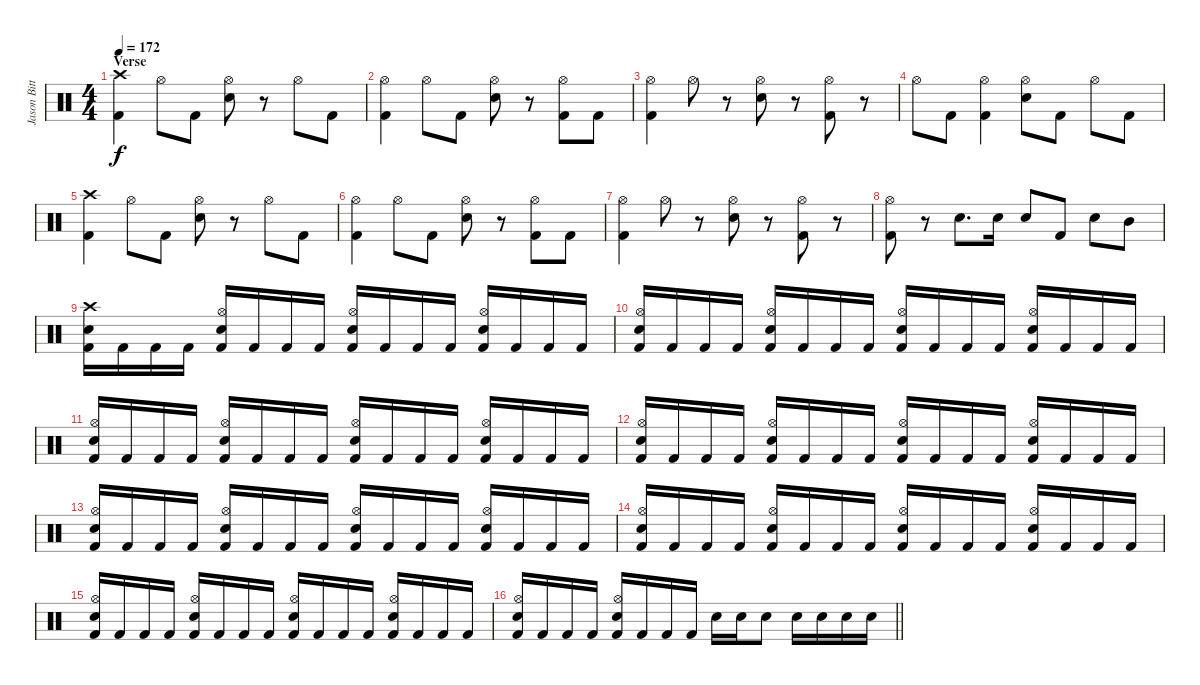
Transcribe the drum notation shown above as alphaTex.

\track ("Jason Bittner" "Jason Bitt") {instrument percussion}
\staff {score}
\articulation defaults
\ts (4 4)
\section ("" "Verse")
\tempo 172
\clef neutral
\ks c
("Crash high (hit)" "Kick (hit) 2").4{dy f} "Hi-Hat (open)".8 "Kick (hit) 2".8 ("Hi-Hat (open)" "Electric Snare (hit)").8 r.8 "Hi-Hat (open)".8 "Kick (hit) 2".8 |
("Hi-Hat (open)" "Kick (hit) 2").4 "Hi-Hat (open)".8 "Kick (hit) 2".8 ("Hi-Hat (open)" "Electric Snare (hit)").8 r.8 ("Hi-Hat (open)" "Kick (hit) 2").8 "Kick (hit) 2".8 |
("Hi-Hat (open)" "Kick (hit) 2").4 "Hi-Hat (open)".8 r.8 ("Hi-Hat (open)" "Electric Snare (hit)").8 r.8 ("Hi-Hat (open)" "Kick (hit) 2").8 r.8 |
"Hi-Hat (open)".8 "Kick (hit) 2".8 ("Hi-Hat (open)" "Kick (hit) 2").4 ("Hi-Hat (open)" "Electric Snare (hit)").8 "Kick (hit) 2".8 "Hi-Hat (open)".8 "Kick (hit) 2".8 |
("Crash high (hit)" "Kick (hit) 2").4 "Hi-Hat (open)".8 "Kick (hit) 2".8 ("Hi-Hat (open)" "Electric Snare (hit)").8 r.8 "Hi-Hat (open)".8 "Kick (hit) 2".8 |
("Hi-Hat (open)" "Kick (hit) 2").4 "Hi-Hat (open)".8 "Kick (hit) 2".8 ("Hi-Hat (open)" "Electric Snare (hit)").8 r.8 ("Hi-Hat (open)" "Kick (hit) 2").8 "Kick (hit) 2".8 |
("Hi-Hat (open)" "Kick (hit) 2").4 "Hi-Hat (open)".8 r.8 ("Hi-Hat (open)" "Electric Snare (hit)").8 r.8 ("Hi-Hat (open)" "Kick (hit) 2").8 r.8 |
("Hi-Hat (open)" "Kick (hit) 2").8 r.8 "Electric Snare (hit)".8{d} "Electric Snare (hit)".16 "Electric Snare (hit)".8 "Kick (hit) 2".8 "Electric Snare (hit)".8 "Mid Tom (hit)".8 |
("Crash high (hit)" "Electric Snare (hit)" "Kick (hit) 2").16 "Kick (hit) 2".16 "Kick (hit) 2".16 "Kick (hit) 2".16 ("Hi-Hat (open)" "Electric Snare (hit)" "Kick (hit) 2").16 "Kick (hit) 2".16 "Kick (hit) 2".16 "Kick (hit) 2".16 ("Hi-Hat (open)" "Electric Snare (hit)" "Kick (hit) 2").16 "Kick (hit) 2".16 "Kick (hit) 2".16 "Kick (hit) 2".16 ("Hi-Hat (open)" "Electric Snare (hit)" "Kick (hit) 2").16 "Kick (hit) 2".16 "Kick (hit) 2".16 "Kick (hit) 2".16 |
("Hi-Hat (open)" "Electric Snare (hit)" "Kick (hit) 2").16 "Kick (hit) 2".16 "Kick (hit) 2".16 "Kick (hit) 2".16 ("Hi-Hat (open)" "Electric Snare (hit)" "Kick (hit) 2").16 "Kick (hit) 2".16 "Kick (hit) 2".16 "Kick (hit) 2".16 ("Hi-Hat (open)" "Electric Snare (hit)" "Kick (hit) 2").16 "Kick (hit) 2".16 "Kick (hit) 2".16 "Kick (hit) 2".16 ("Hi-Hat (open)" "Electric Snare (hit)" "Kick (hit) 2").16 "Kick (hit) 2".16 "Kick (hit) 2".16 "Kick (hit) 2".16 |
("Hi-Hat (open)" "Electric Snare (hit)" "Kick (hit) 2").16 "Kick (hit) 2".16 "Kick (hit) 2".16 "Kick (hit) 2".16 ("Hi-Hat (open)" "Electric Snare (hit)" "Kick (hit) 2").16 "Kick (hit) 2".16 "Kick (hit) 2".16 "Kick (hit) 2".16 ("Hi-Hat (open)" "Electric Snare (hit)" "Kick (hit) 2").16 "Kick (hit) 2".16 "Kick (hit) 2".16 "Kick (hit) 2".16 ("Hi-Hat (open)" "Electric Snare (hit)" "Kick (hit) 2").16 "Kick (hit) 2".16 "Kick (hit) 2".16 "Kick (hit) 2".16 |
("Hi-Hat (open)" "Electric Snare (hit)" "Kick (hit) 2").16 "Kick (hit) 2".16 "Kick (hit) 2".16 "Kick (hit) 2".16 ("Hi-Hat (open)" "Electric Snare (hit)" "Kick (hit) 2").16 "Kick (hit) 2".16 "Kick (hit) 2".16 "Kick (hit) 2".16 ("Hi-Hat (open)" "Electric Snare (hit)" "Kick (hit) 2").16 "Kick (hit) 2".16 "Kick (hit) 2".16 "Kick (hit) 2".16 ("Hi-Hat (open)" "Electric Snare (hit)" "Kick (hit) 2").16 "Kick (hit) 2".16 "Kick (hit) 2".16 "Kick (hit) 2".16 |
("Hi-Hat (open)" "Electric Snare (hit)" "Kick (hit) 2").16 "Kick (hit) 2".16 "Kick (hit) 2".16 "Kick (hit) 2".16 ("Hi-Hat (open)" "Electric Snare (hit)" "Kick (hit) 2").16 "Kick (hit) 2".16 "Kick (hit) 2".16 "Kick (hit) 2".16 ("Hi-Hat (open)" "Electric Snare (hit)" "Kick (hit) 2").16 "Kick (hit) 2".16 "Kick (hit) 2".16 "Kick (hit) 2".16 ("Hi-Hat (open)" "Electric Snare (hit)" "Kick (hit) 2").16 "Kick (hit) 2".16 "Kick (hit) 2".16 "Kick (hit) 2".16 |
("Hi-Hat (open)" "Electric Snare (hit)" "Kick (hit) 2").16 "Kick (hit) 2".16 "Kick (hit) 2".16 "Kick (hit) 2".16 ("Hi-Hat (open)" "Electric Snare (hit)" "Kick (hit) 2").16 "Kick (hit) 2".16 "Kick (hit) 2".16 "Kick (hit) 2".16 ("Hi-Hat (open)" "Electric Snare (hit)" "Kick (hit) 2").16 "Kick (hit) 2".16 "Kick (hit) 2".16 "Kick (hit) 2".16 ("Hi-Hat (open)" "Electric Snare (hit)" "Kick (hit) 2").16 "Kick (hit) 2".16 "Kick (hit) 2".16 "Kick (hit) 2".16 |
("Hi-Hat (open)" "Electric Snare (hit)" "Kick (hit) 2").16 "Kick (hit) 2".16 "Kick (hit) 2".16 "Kick (hit) 2".16 ("Hi-Hat (open)" "Electric Snare (hit)" "Kick (hit) 2").16 "Kick (hit) 2".16 "Kick (hit) 2".16 "Kick (hit) 2".16 ("Hi-Hat (open)" "Electric Snare (hit)" "Kick (hit) 2").16 "Kick (hit) 2".16 "Kick (hit) 2".16 "Kick (hit) 2".16 ("Hi-Hat (open)" "Electric Snare (hit)" "Kick (hit) 2").16 "Kick (hit) 2".16 "Kick (hit) 2".16 "Kick (hit) 2".16 |
\barLineRight lightlight
("Hi-Hat (open)" "Electric Snare (hit)" "Kick (hit) 2").16 "Kick (hit) 2".16 "Kick (hit) 2".16 "Kick (hit) 2".16 ("Hi-Hat (open)" "Electric Snare (hit)" "Kick (hit) 2").16 "Kick (hit) 2".16 "Kick (hit) 2".16 "Kick (hit) 2".16 "Electric Snare (hit)".16 "Electric Snare (hit)".16 "Electric Snare (hit)".8 "Electric Snare (hit)".16 "Electric Snare (hit)".16 "Electric Snare (hit)".16 "Electric Snare (hit)".16
